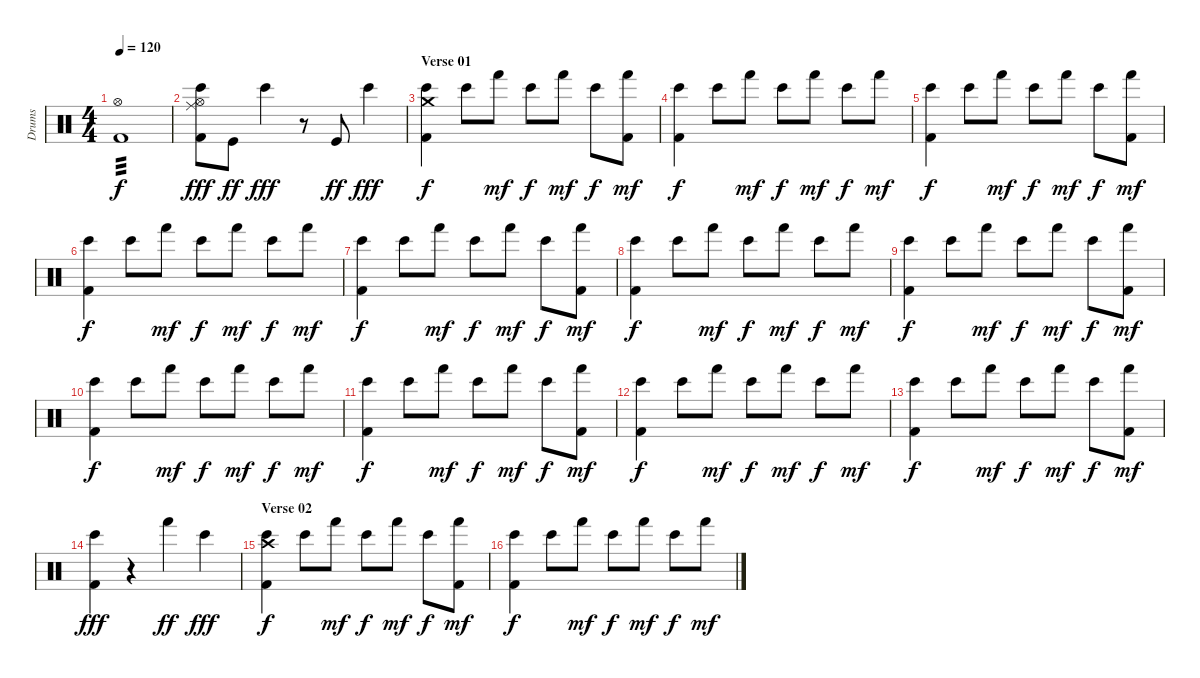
\track ("Drums" "Drums") {instrument percussion}
\staff {score}
\articulation defaults
\ts (4 4)
\tempo 120
\clef neutral
\ks c
("Hi-Hat (open)" "Kick (hit) 2").1{tp 3 dy f volume 16} |
("Hi-Hat (open)" "Kick (hit) 2" "Bongo High (hit)" "Ride (middle)").8{dy fff} "Kick (hit)".8{dy ff} "Bongo High (hit)".4{dy fff} r.8 "Kick (hit)".8{dy ff} "Bongo High (hit)".4{dy fff} |
\section ("" "Verse 01")
("Kick (hit) 2" "Bongo High (hit)" "Crash medium (hit)").4{dy f} "Bongo High (hit)".8 "Hand (hit)".8{dy mf} "Bongo High (hit)".8{dy f} "Hand (hit)".8{dy mf} "Bongo High (hit)".8{dy f} ("Kick (hit) 2" "Hand (hit)").8{dy mf} |
("Kick (hit) 2" "Bongo High (hit)").4{dy f} "Bongo High (hit)".8 "Hand (hit)".8{dy mf} "Bongo High (hit)".8{dy f} "Hand (hit)".8{dy mf} "Bongo High (hit)".8{dy f} "Hand (hit)".8{dy mf} |
("Kick (hit) 2" "Bongo High (hit)").4{dy f} "Bongo High (hit)".8 "Hand (hit)".8{dy mf} "Bongo High (hit)".8{dy f} "Hand (hit)".8{dy mf} "Bongo High (hit)".8{dy f} ("Kick (hit) 2" "Hand (hit)").8{dy mf} |
("Kick (hit) 2" "Bongo High (hit)").4{dy f} "Bongo High (hit)".8 "Hand (hit)".8{dy mf} "Bongo High (hit)".8{dy f} "Hand (hit)".8{dy mf} "Bongo High (hit)".8{dy f} "Hand (hit)".8{dy mf} |
("Kick (hit) 2" "Bongo High (hit)").4{dy f} "Bongo High (hit)".8 "Hand (hit)".8{dy mf} "Bongo High (hit)".8{dy f} "Hand (hit)".8{dy mf} "Bongo High (hit)".8{dy f} ("Kick (hit) 2" "Hand (hit)").8{dy mf} |
("Kick (hit) 2" "Bongo High (hit)").4{dy f} "Bongo High (hit)".8 "Hand (hit)".8{dy mf} "Bongo High (hit)".8{dy f} "Hand (hit)".8{dy mf} "Bongo High (hit)".8{dy f} "Hand (hit)".8{dy mf} |
("Kick (hit) 2" "Bongo High (hit)").4{dy f} "Bongo High (hit)".8 "Hand (hit)".8{dy mf} "Bongo High (hit)".8{dy f} "Hand (hit)".8{dy mf} "Bongo High (hit)".8{dy f} ("Kick (hit) 2" "Hand (hit)").8{dy mf} |
("Kick (hit) 2" "Bongo High (hit)").4{dy f} "Bongo High (hit)".8 "Hand (hit)".8{dy mf} "Bongo High (hit)".8{dy f} "Hand (hit)".8{dy mf} "Bongo High (hit)".8{dy f} "Hand (hit)".8{dy mf} |
("Kick (hit) 2" "Bongo High (hit)").4{dy f} "Bongo High (hit)".8 "Hand (hit)".8{dy mf} "Bongo High (hit)".8{dy f} "Hand (hit)".8{dy mf} "Bongo High (hit)".8{dy f} ("Kick (hit) 2" "Hand (hit)").8{dy mf} |
("Kick (hit) 2" "Bongo High (hit)").4{dy f} "Bongo High (hit)".8 "Hand (hit)".8{dy mf} "Bongo High (hit)".8{dy f} "Hand (hit)".8{dy mf} "Bongo High (hit)".8{dy f} "Hand (hit)".8{dy mf} |
("Kick (hit) 2" "Bongo High (hit)").4{dy f} "Bongo High (hit)".8 "Hand (hit)".8{dy mf} "Bongo High (hit)".8{dy f} "Hand (hit)".8{dy mf} "Bongo High (hit)".8{dy f} ("Kick (hit) 2" "Hand (hit)").8{dy mf} |
("Kick (hit) 2" "Bongo High (hit)").4{dy fff} r.4 "Hand (hit)".4{dy ff} "Bongo High (hit)".4{dy fff} |
\section ("" "Verse 02")
("Kick (hit) 2" "Bongo High (hit)" "Crash high (hit)").4{dy f} "Bongo High (hit)".8 "Hand (hit)".8{dy mf} "Bongo High (hit)".8{dy f} "Hand (hit)".8{dy mf} "Bongo High (hit)".8{dy f} ("Kick (hit) 2" "Hand (hit)").8{dy mf} |
("Kick (hit) 2" "Bongo High (hit)").4{dy f} "Bongo High (hit)".8 "Hand (hit)".8{dy mf} "Bongo High (hit)".8{dy f} "Hand (hit)".8{dy mf} "Bongo High (hit)".8{dy f} "Hand (hit)".8{dy mf}
